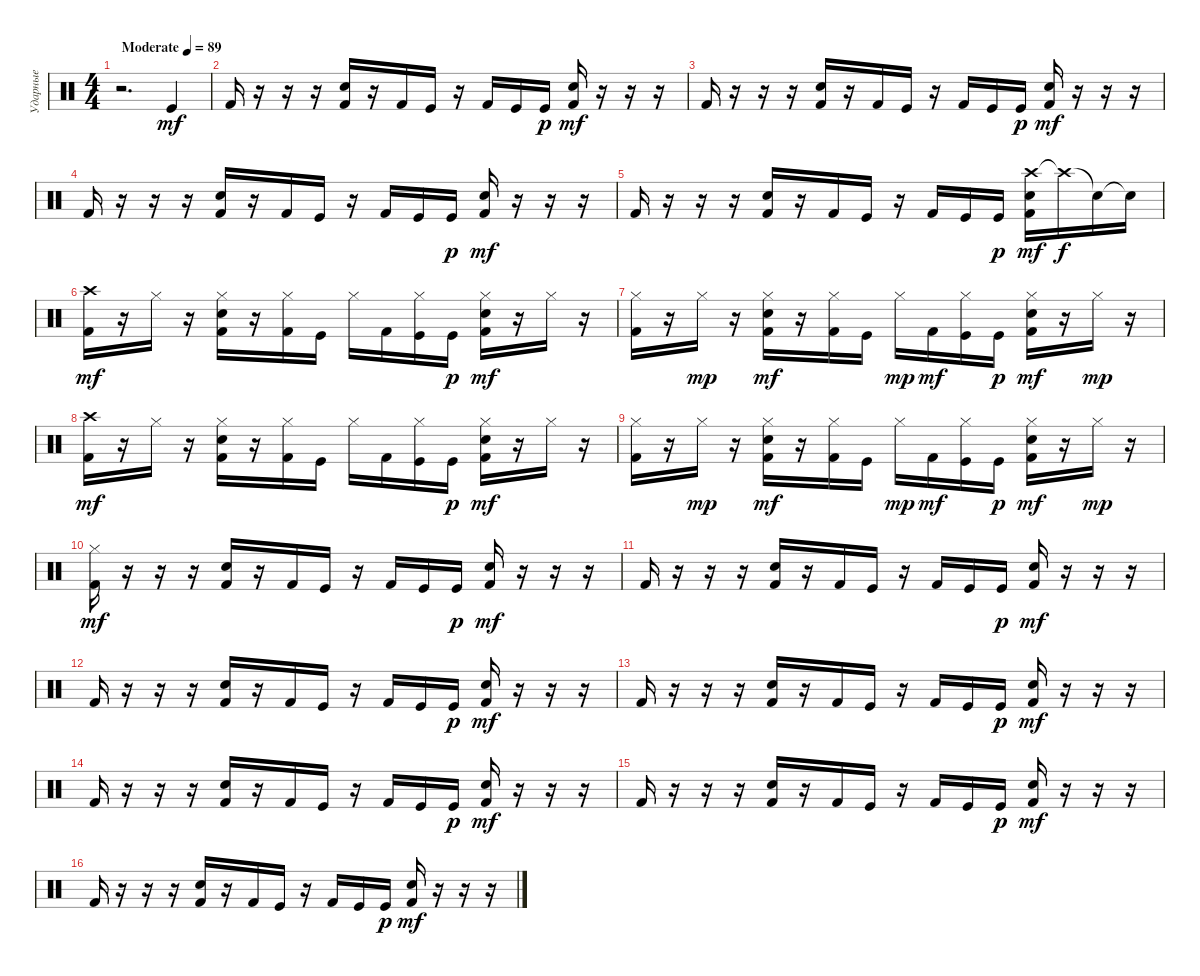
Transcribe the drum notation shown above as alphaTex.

\track ("Ударные" "Ударные") {instrument percussion}
\staff {score}
\articulation defaults
\ts (4 4)
\tempo (89 "Moderate")
\clef neutral
\ks c
r.2{d dy mf} "Kick (hit)".4 |
"Kick (hit) 2".16 r.16 r.16 r.16 ("Snare (hit) 2" "Kick (hit) 2").16 r.16 "Kick (hit) 2".16 "Kick (hit)".16 r.16 "Kick (hit) 2".16 "Kick (hit)".16 "Kick (hit)".16{dy p} ("Snare (hit) 2" "Kick (hit) 2").16{dy mf} r.16 r.16 r.16 |
"Kick (hit) 2".16 r.16 r.16 r.16 ("Snare (hit) 2" "Kick (hit) 2").16 r.16 "Kick (hit) 2".16 "Kick (hit)".16 r.16 "Kick (hit) 2".16 "Kick (hit)".16 "Kick (hit)".16{dy p} ("Snare (hit) 2" "Kick (hit) 2").16{dy mf} r.16 r.16 r.16 |
"Kick (hit) 2".16 r.16 r.16 r.16 ("Snare (hit) 2" "Kick (hit) 2").16 r.16 "Kick (hit) 2".16 "Kick (hit)".16 r.16 "Kick (hit) 2".16 "Kick (hit)".16 "Kick (hit)".16{dy p} ("Snare (hit) 2" "Kick (hit) 2").16{dy mf} r.16 r.16 r.16 |
"Kick (hit) 2".16 r.16 r.16 r.16 ("Snare (hit) 2" "Kick (hit) 2").16 r.16 "Kick (hit) 2".16 "Kick (hit)".16 r.16 "Kick (hit) 2".16 "Kick (hit)".16 "Kick (hit)".16{dy p} ("Crash high (hit)" "Snare (hit) 2" "Kick (hit) 2").16{dy mf} "Crash high (hit)"{t}.16{dy f} "Snare (hit)"{t}.16 "Snare (hit)"{t}.16 |
("Crash high (hit)" "Kick (hit) 2").16{dy mf} r.16 "Hi-Hat (closed)".16 r.16 ("Hi-Hat (closed)" "Snare (hit) 2" "Kick (hit) 2").16 r.16 ("Hi-Hat (closed)" "Kick (hit) 2").16 "Kick (hit)".16 "Hi-Hat (closed)".16 "Kick (hit) 2".16 ("Hi-Hat (closed)" "Kick (hit)").16 "Kick (hit)".16{dy p} ("Hi-Hat (closed)" "Snare (hit) 2" "Kick (hit) 2").16{dy mf} r.16 "Hi-Hat (closed)".16 r.16 |
("Hi-Hat (closed)" "Kick (hit) 2").16 r.16 "Hi-Hat (closed)".16{dy mp} r.16 ("Hi-Hat (closed)" "Snare (hit) 2" "Kick (hit) 2").16{dy mf} r.16 ("Hi-Hat (closed)" "Kick (hit) 2").16 "Kick (hit)".16 "Hi-Hat (closed)".16{dy mp} "Kick (hit) 2".16{dy mf} ("Hi-Hat (closed)" "Kick (hit)").16 "Kick (hit)".16{dy p} ("Hi-Hat (closed)" "Snare (hit) 2" "Kick (hit) 2").16{dy mf} r.16 "Hi-Hat (closed)".16{dy mp} r.16 |
("Crash high (hit)" "Kick (hit) 2").16{dy mf} r.16 "Hi-Hat (closed)".16 r.16 ("Hi-Hat (closed)" "Snare (hit) 2" "Kick (hit) 2").16 r.16 ("Hi-Hat (closed)" "Kick (hit) 2").16 "Kick (hit)".16 "Hi-Hat (closed)".16 "Kick (hit) 2".16 ("Hi-Hat (closed)" "Kick (hit)").16 "Kick (hit)".16{dy p} ("Hi-Hat (closed)" "Snare (hit) 2" "Kick (hit) 2").16{dy mf} r.16 "Hi-Hat (closed)".16 r.16 |
("Hi-Hat (closed)" "Kick (hit) 2").16 r.16 "Hi-Hat (closed)".16{dy mp} r.16 ("Hi-Hat (closed)" "Snare (hit) 2" "Kick (hit) 2").16{dy mf} r.16 ("Hi-Hat (closed)" "Kick (hit) 2").16 "Kick (hit)".16 "Hi-Hat (closed)".16{dy mp} "Kick (hit) 2".16{dy mf} ("Hi-Hat (closed)" "Kick (hit)").16 "Kick (hit)".16{dy p} ("Hi-Hat (closed)" "Snare (hit) 2" "Kick (hit) 2").16{dy mf} r.16 "Hi-Hat (closed)".16{dy mp} r.16 |
("Hi-Hat (closed)" "Kick (hit) 2").16{dy mf} r.16 r.16 r.16 ("Snare (hit) 2" "Kick (hit) 2").16 r.16 "Kick (hit) 2".16 "Kick (hit)".16 r.16 "Kick (hit) 2".16 "Kick (hit)".16 "Kick (hit)".16{dy p} ("Snare (hit) 2" "Kick (hit) 2").16{dy mf} r.16 r.16 r.16 |
"Kick (hit) 2".16 r.16 r.16 r.16 ("Snare (hit) 2" "Kick (hit) 2").16 r.16 "Kick (hit) 2".16 "Kick (hit)".16 r.16 "Kick (hit) 2".16 "Kick (hit)".16 "Kick (hit)".16{dy p} ("Snare (hit) 2" "Kick (hit) 2").16{dy mf} r.16 r.16 r.16 |
"Kick (hit) 2".16 r.16 r.16 r.16 ("Snare (hit) 2" "Kick (hit) 2").16 r.16 "Kick (hit) 2".16 "Kick (hit)".16 r.16 "Kick (hit) 2".16 "Kick (hit)".16 "Kick (hit)".16{dy p} ("Snare (hit) 2" "Kick (hit) 2").16{dy mf} r.16 r.16 r.16 |
"Kick (hit) 2".16 r.16 r.16 r.16 ("Snare (hit) 2" "Kick (hit) 2").16 r.16 "Kick (hit) 2".16 "Kick (hit)".16 r.16 "Kick (hit) 2".16 "Kick (hit)".16 "Kick (hit)".16{dy p} ("Snare (hit) 2" "Kick (hit) 2").16{dy mf} r.16 r.16 r.16 |
"Kick (hit) 2".16 r.16 r.16 r.16 ("Snare (hit) 2" "Kick (hit) 2").16 r.16 "Kick (hit) 2".16 "Kick (hit)".16 r.16 "Kick (hit) 2".16 "Kick (hit)".16 "Kick (hit)".16{dy p} ("Snare (hit) 2" "Kick (hit) 2").16{dy mf} r.16 r.16 r.16 |
"Kick (hit) 2".16 r.16 r.16 r.16 ("Snare (hit) 2" "Kick (hit) 2").16 r.16 "Kick (hit) 2".16 "Kick (hit)".16 r.16 "Kick (hit) 2".16 "Kick (hit)".16 "Kick (hit)".16{dy p} ("Snare (hit) 2" "Kick (hit) 2").16{dy mf} r.16 r.16 r.16 |
"Kick (hit) 2".16 r.16 r.16 r.16 ("Snare (hit) 2" "Kick (hit) 2").16 r.16 "Kick (hit) 2".16 "Kick (hit)".16 r.16 "Kick (hit) 2".16 "Kick (hit)".16 "Kick (hit)".16{dy p} ("Snare (hit) 2" "Kick (hit) 2").16{dy mf} r.16 r.16 r.16
